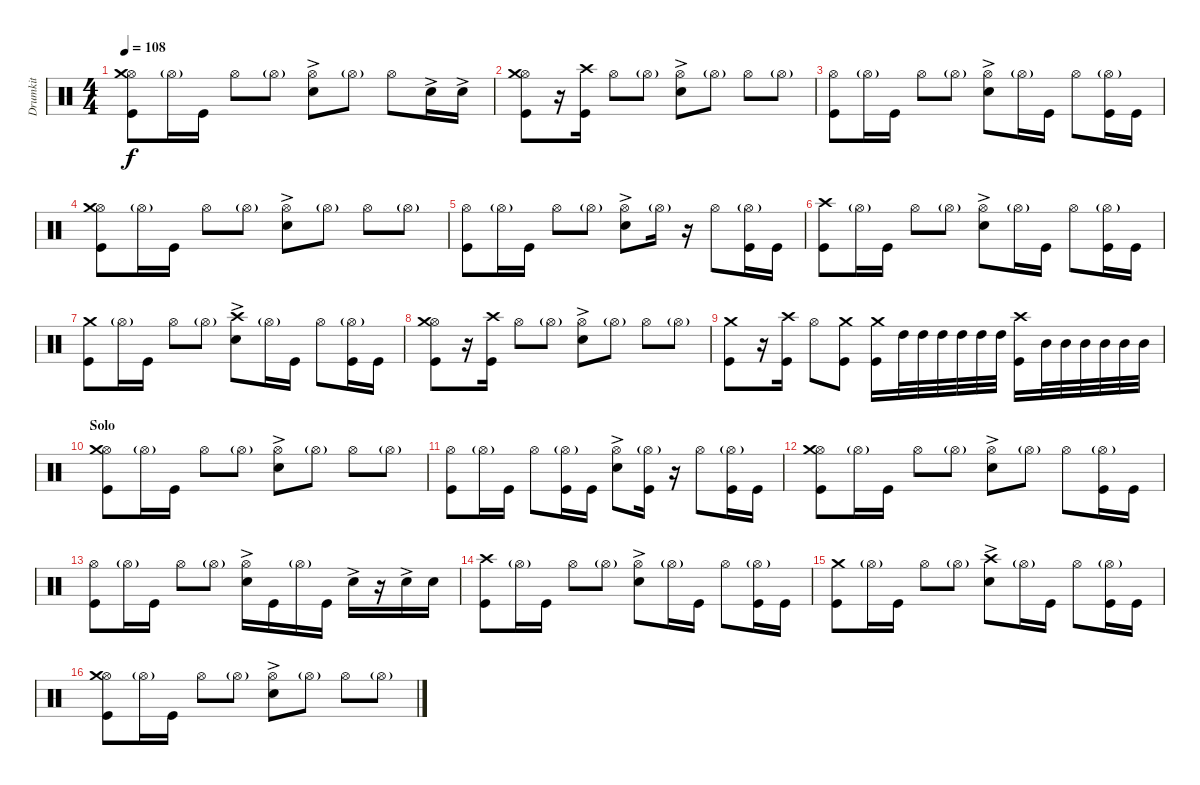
\track ("Drumkit" "Drumkit") {instrument percussion}
\staff {score}
\articulation defaults
\ts (4 4)
\tempo 108
\clef neutral
\ks c
("Kick (hit)" "Hi-Hat (open)" "Crash medium (hit)").8{dy f} "Hi-Hat (open)"{g}.16 "Kick (hit)".16 "Hi-Hat (open)".8 "Hi-Hat (open)"{g}.8 ("Hi-Hat (open)" "Snare (hit) 2"{ac}).8 "Hi-Hat (open)"{g}.8 "Hi-Hat (open)".8 "Snare (hit) 2"{ac}.16 "Snare (hit) 2"{ac}.16 |
("Kick (hit)" "Hi-Hat (open)" "Crash medium (hit)").8 r.16 ("Kick (hit)" "Crash high (hit)").16 "Hi-Hat (open)".8 "Hi-Hat (open)"{g}.8 ("Hi-Hat (open)" "Snare (hit) 2"{ac}).8 "Hi-Hat (open)"{g}.8 "Hi-Hat (open)".8 "Hi-Hat (open)"{g}.8 |
("Kick (hit)" "Hi-Hat (open)").8 "Hi-Hat (open)"{g}.16 "Kick (hit)".16 "Hi-Hat (open)".8 "Hi-Hat (open)"{g}.8 ("Hi-Hat (open)" "Snare (hit) 2"{ac}).8 "Hi-Hat (open)"{g}.16 "Kick (hit)".16 "Hi-Hat (open)".8 ("Hi-Hat (open)"{g} "Kick (hit)").16 "Kick (hit)".16 |
("Kick (hit)" "Hi-Hat (open)" "Crash medium (hit)").8 "Hi-Hat (open)"{g}.16 "Kick (hit)".16 "Hi-Hat (open)".8 "Hi-Hat (open)"{g}.8 ("Hi-Hat (open)" "Snare (hit) 2"{ac}).8 "Hi-Hat (open)"{g}.8 "Hi-Hat (open)".8 "Hi-Hat (open)"{g}.8 |
("Kick (hit)" "Hi-Hat (open)").8 "Hi-Hat (open)"{g}.16 "Kick (hit)".16 "Hi-Hat (open)".8 "Hi-Hat (open)"{g}.8 ("Hi-Hat (open)" "Snare (hit) 2"{ac}).8 "Hi-Hat (open)"{g}.16 r.16 "Hi-Hat (open)".8 ("Hi-Hat (open)"{g} "Kick (hit)").16 "Kick (hit)".16 |
("Kick (hit)" "Crash high (hit)").8 "Hi-Hat (open)"{g}.16 "Kick (hit)".16 "Hi-Hat (open)".8 "Hi-Hat (open)"{g}.8 ("Hi-Hat (open)" "Snare (hit) 2"{ac}).8 "Hi-Hat (open)"{g}.16 "Kick (hit)".16 "Hi-Hat (open)".8 ("Hi-Hat (open)"{g} "Kick (hit)").16 "Kick (hit)".16 |
("Kick (hit)" "Crash medium (hit)").8 "Hi-Hat (open)"{g}.16 "Kick (hit)".16 "Hi-Hat (open)".8 "Hi-Hat (open)"{g}.8 ("Snare (hit) 2"{ac} "Crash high (hit)").8 "Hi-Hat (open)"{g}.16 "Kick (hit)".16 "Hi-Hat (open)".8 ("Hi-Hat (open)"{g} "Kick (hit)").16 "Kick (hit)".16 |
("Kick (hit)" "Hi-Hat (open)" "Crash medium (hit)").8 r.16 ("Kick (hit)" "Crash high (hit)").16 "Hi-Hat (open)".8 "Hi-Hat (open)"{g}.8 ("Hi-Hat (open)" "Snare (hit) 2"{ac}).8 "Hi-Hat (open)"{g}.8 "Hi-Hat (open)".8 "Hi-Hat (open)"{g}.8 |
("Kick (hit)" "Crash medium (hit)").8 r.16 ("Kick (hit)" "Crash high (hit)").16 "Hi-Hat (open)".8 ("Crash medium (hit)" "Kick (hit)").8 ("Kick (hit)" "Crash medium (hit)").16 "High Tom (hit)".32 "High Tom (hit)".32 "High Tom (hit)".32 "High Tom (hit)".32 "High Tom (hit)".32 "High Tom (hit)".32 ("Kick (hit)" "Crash high (hit)").16 "Mid Tom (hit)".32 "Mid Tom (hit)".32 "Mid Tom (hit)".32 "Mid Tom (hit)".32 "Mid Tom (hit)".32 "Mid Tom (hit)".32 |
\section ("" "Solo")
("Kick (hit)" "Hi-Hat (open)" "Crash medium (hit)").8 "Hi-Hat (open)"{g}.16 "Kick (hit)".16 "Hi-Hat (open)".8 "Hi-Hat (open)"{g}.8 ("Hi-Hat (open)" "Snare (hit) 2"{ac}).8 "Hi-Hat (open)"{g}.8 "Hi-Hat (open)".8 "Hi-Hat (open)"{g}.8 |
("Kick (hit)" "Hi-Hat (open)").8 "Hi-Hat (open)"{g}.16 "Kick (hit)".16 "Hi-Hat (open)".8 ("Kick (hit)" "Hi-Hat (open)"{g}).16 "Kick (hit)".16 ("Hi-Hat (open)" "Snare (hit) 2"{ac}).8 ("Hi-Hat (open)"{g} "Kick (hit)").16 r.16 "Hi-Hat (open)".8 ("Hi-Hat (open)"{g} "Kick (hit)").16 "Kick (hit)".16 |
("Kick (hit)" "Hi-Hat (open)" "Crash medium (hit)").8 "Hi-Hat (open)"{g}.16 "Kick (hit)".16 "Hi-Hat (open)".8 "Hi-Hat (open)"{g}.8 ("Hi-Hat (open)" "Snare (hit) 2"{ac}).8 "Hi-Hat (open)"{g}.8 "Hi-Hat (open)".8 ("Hi-Hat (open)"{g} "Kick (hit)").16 "Kick (hit)".16 |
("Kick (hit)" "Hi-Hat (open)").8 "Hi-Hat (open)"{g}.16 "Kick (hit)".16 "Hi-Hat (open)".8 "Hi-Hat (open)"{g}.8 ("Hi-Hat (open)" "Snare (hit) 2"{ac}).16 "Kick (hit)".16 "Hi-Hat (open)"{g}.16 "Kick (hit)".16 "Snare (hit) 2"{ac}.16 r.16 "Snare (hit) 2"{ac}.16 "Snare (hit) 2".16 |
("Kick (hit)" "Crash high (hit)").8 "Hi-Hat (open)"{g}.16 "Kick (hit)".16 "Hi-Hat (open)".8 "Hi-Hat (open)"{g}.8 ("Hi-Hat (open)" "Snare (hit) 2"{ac}).8 "Hi-Hat (open)"{g}.16 "Kick (hit)".16 "Hi-Hat (open)".8 ("Hi-Hat (open)"{g} "Kick (hit)").16 "Kick (hit)".16 |
("Kick (hit)" "Crash medium (hit)").8 "Hi-Hat (open)"{g}.16 "Kick (hit)".16 "Hi-Hat (open)".8 "Hi-Hat (open)"{g}.8 ("Snare (hit) 2"{ac} "Crash high (hit)").8 "Hi-Hat (open)"{g}.16 "Kick (hit)".16 "Hi-Hat (open)".8 ("Hi-Hat (open)"{g} "Kick (hit)").16 "Kick (hit)".16 |
("Kick (hit)" "Hi-Hat (open)" "Crash medium (hit)").8 "Hi-Hat (open)"{g}.16 "Kick (hit)".16 "Hi-Hat (open)".8 "Hi-Hat (open)"{g}.8 ("Hi-Hat (open)" "Snare (hit) 2"{ac}).8 "Hi-Hat (open)"{g}.8 "Hi-Hat (open)".8 "Hi-Hat (open)"{g}.8
